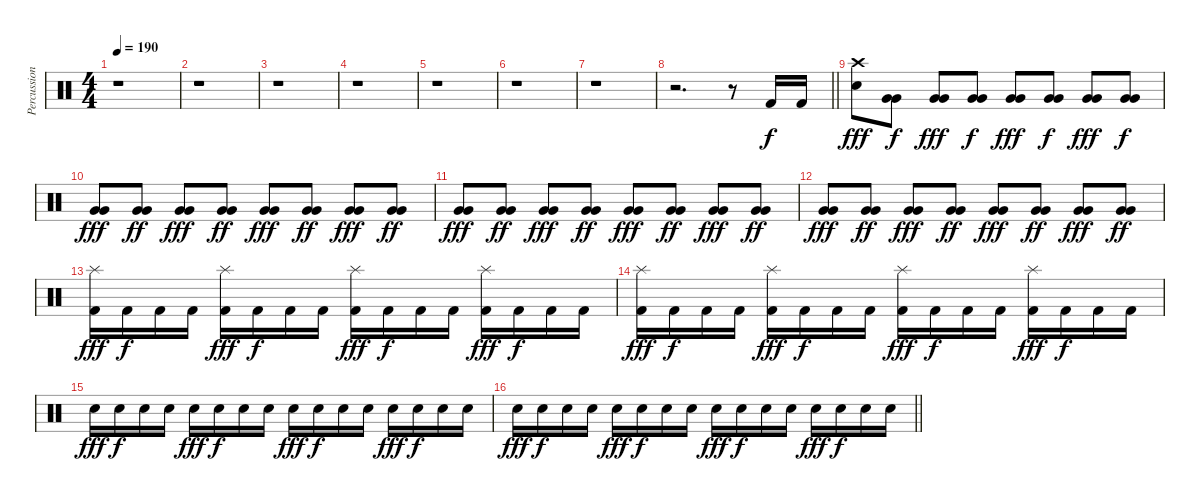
\track ("Percussions" "Percussion") {instrument percussion}
\staff {score}
\articulation defaults
\ts (4 4)
\tempo 190
\clef neutral
\ks c
r.1{dy f} |
r.1 |
r.1 |
r.1 |
r.1 |
r.1 |
r.1 |
\barLineRight lightlight
r.2{d} r.8 "Kick (hit) 2".16 "Kick (hit) 2".16 |
("Crash high (hit)" "Snare (hit) 2").8{dy fff} ("Very Low Tom (hit)" "Very Low Tom (hit)").8{dy f} ("Very Low Tom (hit)" "Very Low Tom (hit)").8{dy fff} ("Very Low Tom (hit)" "Very Low Tom (hit)").8{dy f} ("Very Low Tom (hit)" "Very Low Tom (hit)").8{dy fff} ("Very Low Tom (hit)" "Very Low Tom (hit)").8{dy f} ("Very Low Tom (hit)" "Very Low Tom (hit)").8{dy fff} ("Very Low Tom (hit)" "Very Low Tom (hit)").8{dy f} |
("Very Low Tom (hit)" "Very Low Tom (hit)").8{dy fff} ("Very Low Tom (hit)" "Very Low Tom (hit)").8{dy ff} ("Very Low Tom (hit)" "Very Low Tom (hit)").8{dy fff} ("Very Low Tom (hit)" "Very Low Tom (hit)").8{dy ff} ("Very Low Tom (hit)" "Very Low Tom (hit)").8{dy fff} ("Very Low Tom (hit)" "Very Low Tom (hit)").8{dy ff} ("Very Low Tom (hit)" "Very Low Tom (hit)").8{dy fff} ("Very Low Tom (hit)" "Very Low Tom (hit)").8{dy ff} |
("Very Low Tom (hit)" "Very Low Tom (hit)").8{dy fff} ("Very Low Tom (hit)" "Very Low Tom (hit)").8{dy ff} ("Very Low Tom (hit)" "Very Low Tom (hit)").8{dy fff} ("Very Low Tom (hit)" "Very Low Tom (hit)").8{dy ff} ("Very Low Tom (hit)" "Very Low Tom (hit)").8{dy fff} ("Very Low Tom (hit)" "Very Low Tom (hit)").8{dy ff} ("Very Low Tom (hit)" "Very Low Tom (hit)").8{dy fff} ("Very Low Tom (hit)" "Very Low Tom (hit)").8{dy ff} |
("Very Low Tom (hit)" "Very Low Tom (hit)").8{dy fff} ("Very Low Tom (hit)" "Very Low Tom (hit)").8{dy ff} ("Very Low Tom (hit)" "Very Low Tom (hit)").8{dy fff} ("Very Low Tom (hit)" "Very Low Tom (hit)").8{dy ff} ("Very Low Tom (hit)" "Very Low Tom (hit)").8{dy fff} ("Very Low Tom (hit)" "Very Low Tom (hit)").8{dy ff} ("Very Low Tom (hit)" "Very Low Tom (hit)").8{dy fff} ("Very Low Tom (hit)" "Very Low Tom (hit)").8{dy ff} |
("Splash (hit)" "Kick (hit) 2").16{dy fff} "Kick (hit) 2".16{dy f} "Kick (hit) 2".16 "Kick (hit) 2".16 ("Splash (hit)" "Kick (hit) 2").16{dy fff} "Kick (hit) 2".16{dy f} "Kick (hit) 2".16 "Kick (hit) 2".16 ("Splash (hit)" "Kick (hit) 2").16{dy fff} "Kick (hit) 2".16{dy f} "Kick (hit) 2".16 "Kick (hit) 2".16 ("Splash (hit)" "Kick (hit) 2").16{dy fff} "Kick (hit) 2".16{dy f} "Kick (hit) 2".16 "Kick (hit) 2".16 |
("Splash (hit)" "Kick (hit) 2").16{dy fff} "Kick (hit) 2".16{dy f} "Kick (hit) 2".16 "Kick (hit) 2".16 ("Splash (hit)" "Kick (hit) 2").16{dy fff} "Kick (hit) 2".16{dy f} "Kick (hit) 2".16 "Kick (hit) 2".16 ("Splash (hit)" "Kick (hit) 2").16{dy fff} "Kick (hit) 2".16{dy f} "Kick (hit) 2".16 "Kick (hit) 2".16 ("Splash (hit)" "Kick (hit) 2").16{dy fff} "Kick (hit) 2".16{dy f} "Kick (hit) 2".16 "Kick (hit) 2".16 |
"Snare (hit) 2".16{dy fff} "Snare (hit) 2".16{dy f} "Snare (hit) 2".16 "Snare (hit) 2".16 "Snare (hit) 2".16{dy fff} "Snare (hit) 2".16{dy f} "Snare (hit) 2".16 "Snare (hit) 2".16 "Snare (hit) 2".16{dy fff} "Snare (hit) 2".16{dy f} "Snare (hit) 2".16 "Snare (hit) 2".16 "Snare (hit) 2".16{dy fff} "Snare (hit) 2".16{dy f} "Snare (hit) 2".16 "Snare (hit) 2".16 |
\barLineRight lightlight "Snare (hit) 2".16{dy fff} "Snare (hit) 2".16{dy f} "Snare (hit) 2".16 "Snare (hit) 2".16 "Snare (hit) 2".16{dy fff} "Snare (hit) 2".16{dy f} "Snare (hit) 2".16 "Snare (hit) 2".16 "Snare (hit) 2".16{dy fff} "Snare (hit) 2".16{dy f} "Snare (hit) 2".16 "Snare (hit) 2".16 "Snare (hit) 2".16{dy fff} "Snare (hit) 2".16{dy f} "Snare (hit) 2".16 "Snare (hit) 2".16
